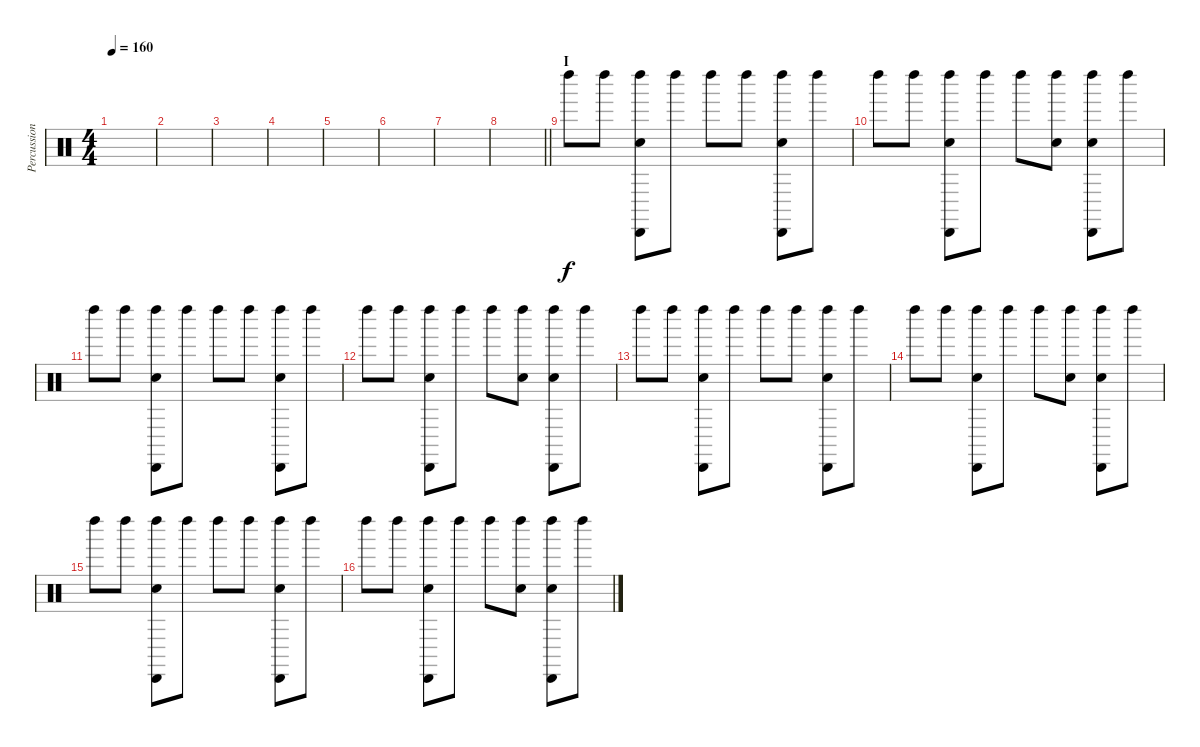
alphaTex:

\track ("Percussion A (Tainaka Ritsu)" "Percussion") {instrument percussion}
\staff {score}
\articulation defaults
\ts (4 4)
\tempo 160
\clef neutral
\ks c
|
|
|
|
|
|
|
\barLineRight lightlight
|
\section ("" "I")
"Left Maraca (hit)".8 "Left Maraca (hit)".8 ("Left Maraca (hit)" "Cabasa (hit)" "Hand Clap (hit)").8 "Left Maraca (hit)".8 "Left Maraca (hit)".8 "Left Maraca (hit)".8 ("Left Maraca (hit)" "Cabasa (hit)" "Hand Clap (hit)").8 "Left Maraca (hit)".8 |
"Left Maraca (hit)".8 "Left Maraca (hit)".8 ("Left Maraca (hit)" "Cabasa (hit)" "Hand Clap (hit)").8 "Left Maraca (hit)".8 "Left Maraca (hit)".8 ("Left Maraca (hit)" "Hand Clap (hit)").8 ("Left Maraca (hit)" "Cabasa (hit)" "Hand Clap (hit)").8 "Left Maraca (hit)".8 |
"Left Maraca (hit)".8 "Left Maraca (hit)".8 ("Left Maraca (hit)" "Cabasa (hit)" "Hand Clap (hit)").8 "Left Maraca (hit)".8 "Left Maraca (hit)".8 "Left Maraca (hit)".8 ("Left Maraca (hit)" "Cabasa (hit)" "Hand Clap (hit)").8 "Left Maraca (hit)".8 |
"Left Maraca (hit)".8 "Left Maraca (hit)".8 ("Left Maraca (hit)" "Cabasa (hit)" "Hand Clap (hit)").8 "Left Maraca (hit)".8 "Left Maraca (hit)".8 ("Left Maraca (hit)" "Hand Clap (hit)").8 ("Left Maraca (hit)" "Cabasa (hit)" "Hand Clap (hit)").8 "Left Maraca (hit)".8 |
"Left Maraca (hit)".8 "Left Maraca (hit)".8 ("Left Maraca (hit)" "Cabasa (hit)" "Hand Clap (hit)").8 "Left Maraca (hit)".8 "Left Maraca (hit)".8 "Left Maraca (hit)".8 ("Left Maraca (hit)" "Cabasa (hit)" "Hand Clap (hit)").8 "Left Maraca (hit)".8 |
"Left Maraca (hit)".8 "Left Maraca (hit)".8 ("Left Maraca (hit)" "Cabasa (hit)" "Hand Clap (hit)").8 "Left Maraca (hit)".8 "Left Maraca (hit)".8 ("Left Maraca (hit)" "Hand Clap (hit)").8 ("Left Maraca (hit)" "Cabasa (hit)" "Hand Clap (hit)").8 "Left Maraca (hit)".8 |
"Left Maraca (hit)".8 "Left Maraca (hit)".8 ("Left Maraca (hit)" "Cabasa (hit)" "Hand Clap (hit)").8 "Left Maraca (hit)".8 "Left Maraca (hit)".8 "Left Maraca (hit)".8 ("Left Maraca (hit)" "Cabasa (hit)" "Hand Clap (hit)").8 "Left Maraca (hit)".8 |
"Left Maraca (hit)".8 "Left Maraca (hit)".8 ("Left Maraca (hit)" "Cabasa (hit)" "Hand Clap (hit)").8 "Left Maraca (hit)".8 "Left Maraca (hit)".8 ("Left Maraca (hit)" "Hand Clap (hit)").8 ("Left Maraca (hit)" "Cabasa (hit)" "Hand Clap (hit)").8 "Left Maraca (hit)".8
